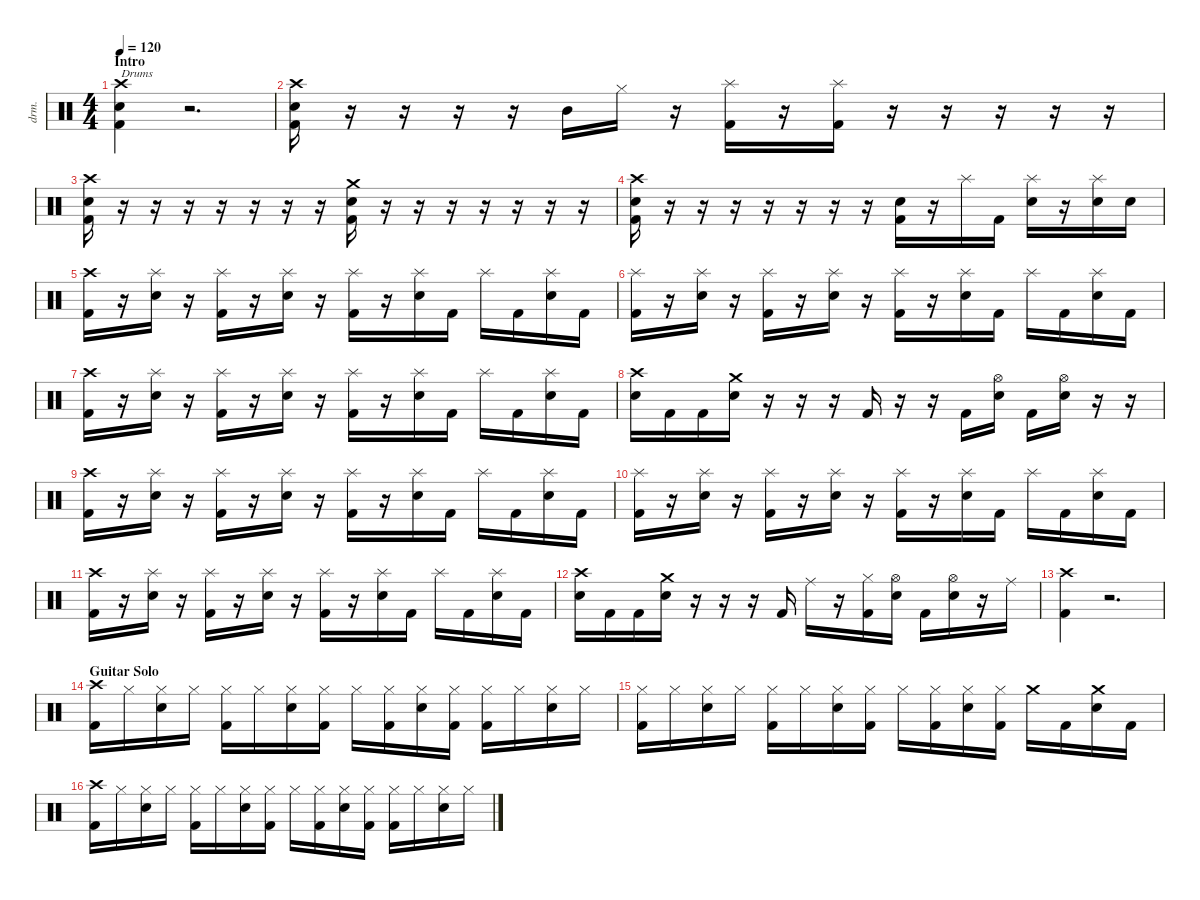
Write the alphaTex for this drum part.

\defaultSystemsLayout 4
\hideDynamics
\bracketExtendMode nobrackets
\track ("Drums" "drm.") {instrument percussion}
\staff {score}
\articulation defaults
\ts (4 4)
\section ("" "Intro")
\tempo 120
\clef neutral
\ks c
("Crash high (hit)" "Snare (hit) 2" "Kick (hit) 2").4{txt "Drums" dy f} r.2{d} |
("Crash high (hit)" "Snare (hit) 2" "Kick (hit) 2").16{dy fff} r.16 r.16 r.16 r.16 "Mid Tom (hit)".16{dy f} "Hi-Hat (closed)".16{dy fff} r.16 ("Splash (hit)" "Kick (hit) 2").16 r.16 ("Splash (hit)" "Kick (hit) 2").16 r.16 r.16 r.16 r.16 r.16 |
("Crash high (hit)" "Snare (hit) 2" "Kick (hit) 2").16 r.16 r.16 r.16 r.16 r.16 r.16 r.16 ("Crash medium (hit)" "Snare (hit) 2" "Kick (hit) 2").16 r.16 r.16 r.16 r.16 r.16 r.16 r.16 |
("Crash high (hit)" "Snare (hit) 2" "Kick (hit) 2").16{dy f} r.16 r.16 r.16 r.16 r.16 r.16 r.16 ("Snare (hit) 2" "Kick (hit) 2").16 r.16 "Splash (hit)".16{dy fff} "Kick (hit) 2".16{dy f} ("Splash (hit)" "Snare (hit) 2").16{dy fff} r.16 ("Splash (hit)" "Snare (hit) 2").16 "Snare (hit) 2".16{dy f} |
("Crash high (hit)" "Kick (hit) 2").16{dy fff} r.16 ("Splash (hit)" "Snare (hit) 2").16 r.16 ("Splash (hit)" "Kick (hit) 2").16 r.16 ("Splash (hit)" "Snare (hit) 2").16 r.16 ("Splash (hit)" "Kick (hit) 2").16 r.16 ("Splash (hit)" "Snare (hit) 2").16 "Kick (hit) 2".16{dy f} "Splash (hit)".16{dy fff} "Kick (hit) 2".16{dy f} ("Splash (hit)" "Snare (hit) 2").16{dy fff} "Kick (hit) 2".16{dy f} |
("Splash (hit)" "Kick (hit) 2").16{dy fff} r.16 ("Splash (hit)" "Snare (hit) 2").16 r.16 ("Splash (hit)" "Kick (hit) 2").16 r.16 ("Splash (hit)" "Snare (hit) 2").16 r.16 ("Splash (hit)" "Kick (hit) 2").16 r.16 ("Splash (hit)" "Snare (hit) 2").16 "Kick (hit) 2".16{dy f} "Splash (hit)".16{dy fff} "Kick (hit) 2".16{dy f} ("Splash (hit)" "Snare (hit) 2").16{dy fff} "Kick (hit) 2".16{dy f} |
("Crash high (hit)" "Kick (hit) 2").16{dy fff} r.16 ("Splash (hit)" "Snare (hit) 2").16 r.16 ("Splash (hit)" "Kick (hit) 2").16 r.16 ("Splash (hit)" "Snare (hit) 2").16 r.16 ("Splash (hit)" "Kick (hit) 2").16 r.16 ("Splash (hit)" "Snare (hit) 2").16 "Kick (hit) 2".16{dy f} "Splash (hit)".16{dy fff} "Kick (hit) 2".16{dy f} ("Splash (hit)" "Snare (hit) 2").16{dy fff} "Kick (hit) 2".16{dy f} |
("Crash high (hit)" "Snare (hit) 2").16{dy fff} "Kick (hit) 2".16{dy f} "Kick (hit) 2".16 ("Crash medium (hit)" "Snare (hit) 2").16{dy fff} r.16 r.16 r.16 "Kick (hit) 2".16{dy f} r.16 r.16 "Kick (hit) 2".16 ("Hi-Hat (open)" "Snare (hit) 2").16{dy fff} "Kick (hit) 2".16{dy f} ("Hi-Hat (open)" "Snare (hit) 2").16{dy fff} r.16 r.16 |
("Crash high (hit)" "Kick (hit) 2").16 r.16 ("Splash (hit)" "Snare (hit) 2").16 r.16 ("Splash (hit)" "Kick (hit) 2").16 r.16 ("Splash (hit)" "Snare (hit) 2").16 r.16 ("Splash (hit)" "Kick (hit) 2").16 r.16 ("Splash (hit)" "Snare (hit) 2").16 "Kick (hit) 2".16{dy f} "Splash (hit)".16{dy fff} "Kick (hit) 2".16{dy f} ("Splash (hit)" "Snare (hit) 2").16{dy fff} "Kick (hit) 2".16{dy f} |
("Splash (hit)" "Kick (hit) 2").16{dy fff} r.16 ("Splash (hit)" "Snare (hit) 2").16 r.16 ("Splash (hit)" "Kick (hit) 2").16 r.16 ("Splash (hit)" "Snare (hit) 2").16 r.16 ("Splash (hit)" "Kick (hit) 2").16 r.16 ("Splash (hit)" "Snare (hit) 2").16 "Kick (hit) 2".16{dy f} "Splash (hit)".16{dy fff} "Kick (hit) 2".16{dy f} ("Splash (hit)" "Snare (hit) 2").16{dy fff} "Kick (hit) 2".16{dy f} |
("Crash high (hit)" "Kick (hit) 2").16{dy fff} r.16 ("Splash (hit)" "Snare (hit) 2").16 r.16 ("Splash (hit)" "Kick (hit) 2").16 r.16 ("Splash (hit)" "Snare (hit) 2").16 r.16 ("Splash (hit)" "Kick (hit) 2").16 r.16 ("Splash (hit)" "Snare (hit) 2").16 "Kick (hit) 2".16{dy f} "Splash (hit)".16{dy fff} "Kick (hit) 2".16{dy f} ("Splash (hit)" "Snare (hit) 2").16{dy fff} "Kick (hit) 2".16{dy f} |
("Crash high (hit)" "Snare (hit) 2").16{dy fff} "Kick (hit) 2".16{dy f} "Kick (hit) 2".16 ("Crash medium (hit)" "Snare (hit) 2").16{dy fff} r.16 r.16 r.16 "Kick (hit) 2".16{dy f} "Ride (middle)".16{dy fff} r.16 ("Hi-Hat (closed)" "Kick (hit) 2").16 ("Hi-Hat (open)" "Snare (hit) 2").16 "Kick (hit) 2".16{dy f} ("Hi-Hat (open)" "Snare (hit) 2").16{dy fff} r.16 "Ride (middle)".16 |
("Crash high (hit)" "Kick (hit) 2").4 r.2{d} |
\section ("" "Guitar Solo")
("Crash high (hit)" "Kick (hit) 2").16 "Hi-Hat (closed)".16 ("Hi-Hat (closed)" "Snare (hit) 2").16 "Hi-Hat (closed)".16 ("Hi-Hat (closed)" "Kick (hit) 2").16 "Hi-Hat (closed)".16 ("Hi-Hat (closed)" "Snare (hit) 2").16 ("Hi-Hat (closed)" "Kick (hit) 2").16 "Hi-Hat (closed)".16 ("Hi-Hat (closed)" "Kick (hit) 2").16 ("Hi-Hat (closed)" "Snare (hit) 2").16 ("Hi-Hat (closed)" "Kick (hit) 2").16 ("Hi-Hat (closed)" "Kick (hit) 2").16 "Hi-Hat (closed)".16 ("Hi-Hat (closed)" "Snare (hit) 2").16 "Hi-Hat (closed)".16 |
("Hi-Hat (closed)" "Kick (hit) 2").16 "Hi-Hat (closed)".16 ("Hi-Hat (closed)" "Snare (hit) 2").16 "Hi-Hat (closed)".16 ("Hi-Hat (closed)" "Kick (hit) 2").16 "Hi-Hat (closed)".16 ("Hi-Hat (closed)" "Snare (hit) 2").16 ("Hi-Hat (closed)" "Kick (hit) 2").16 "Hi-Hat (closed)".16 ("Hi-Hat (closed)" "Kick (hit) 2").16 ("Hi-Hat (closed)" "Snare (hit) 2").16 ("Hi-Hat (closed)" "Kick (hit) 2").16 "Crash medium (hit)".16 "Kick (hit) 2".16{dy f} ("Crash medium (hit)" "Snare (hit) 2").16{dy fff} "Kick (hit) 2".16{dy f} |
("Crash high (hit)" "Kick (hit) 2").16{dy fff} "Hi-Hat (closed)".16 ("Hi-Hat (closed)" "Snare (hit) 2").16 "Hi-Hat (closed)".16 ("Hi-Hat (closed)" "Kick (hit) 2").16 "Hi-Hat (closed)".16 ("Hi-Hat (closed)" "Snare (hit) 2").16 ("Hi-Hat (closed)" "Kick (hit) 2").16 "Hi-Hat (closed)".16 ("Hi-Hat (closed)" "Kick (hit) 2").16 ("Hi-Hat (closed)" "Snare (hit) 2").16 ("Hi-Hat (closed)" "Kick (hit) 2").16 ("Hi-Hat (closed)" "Kick (hit) 2").16 "Hi-Hat (closed)".16 ("Hi-Hat (closed)" "Snare (hit) 2").16 "Hi-Hat (closed)".16
